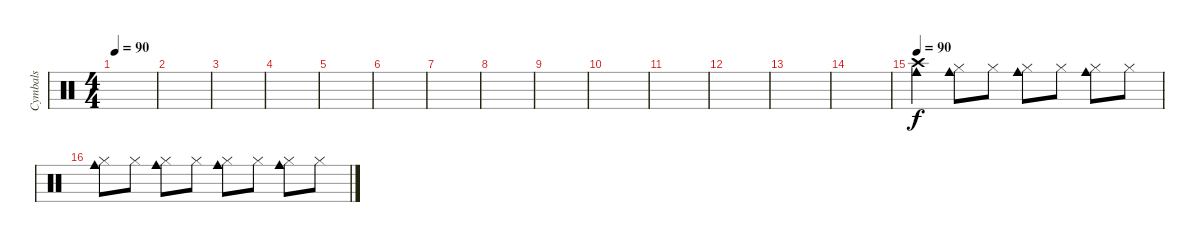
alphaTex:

\track ("Cymbals" "Cymbals") {instrument percussion}
\staff {score}
\articulation defaults
\ts (4 4)
\tempo 90
\clef neutral
\ks c
|
|
|
|
|
|
|
|
|
|
|
|
|
|
\tempo 90
("Cowbell medium (hit)" "Crash high (hit)").4 ("Cowbell medium (hit)" "Hi-Hat (closed)").8 "Hi-Hat (closed)".8 ("Cowbell medium (hit)" "Hi-Hat (closed)").8 "Hi-Hat (closed)".8 ("Cowbell medium (hit)" "Hi-Hat (closed)").8 "Hi-Hat (closed)".8 |
("Cowbell medium (hit)" "Hi-Hat (closed)").8 "Hi-Hat (closed)".8 ("Cowbell medium (hit)" "Hi-Hat (closed)").8 "Hi-Hat (closed)".8 ("Cowbell medium (hit)" "Hi-Hat (closed)").8 "Hi-Hat (closed)".8 ("Cowbell medium (hit)" "Hi-Hat (closed)").8 "Hi-Hat (closed)".8
